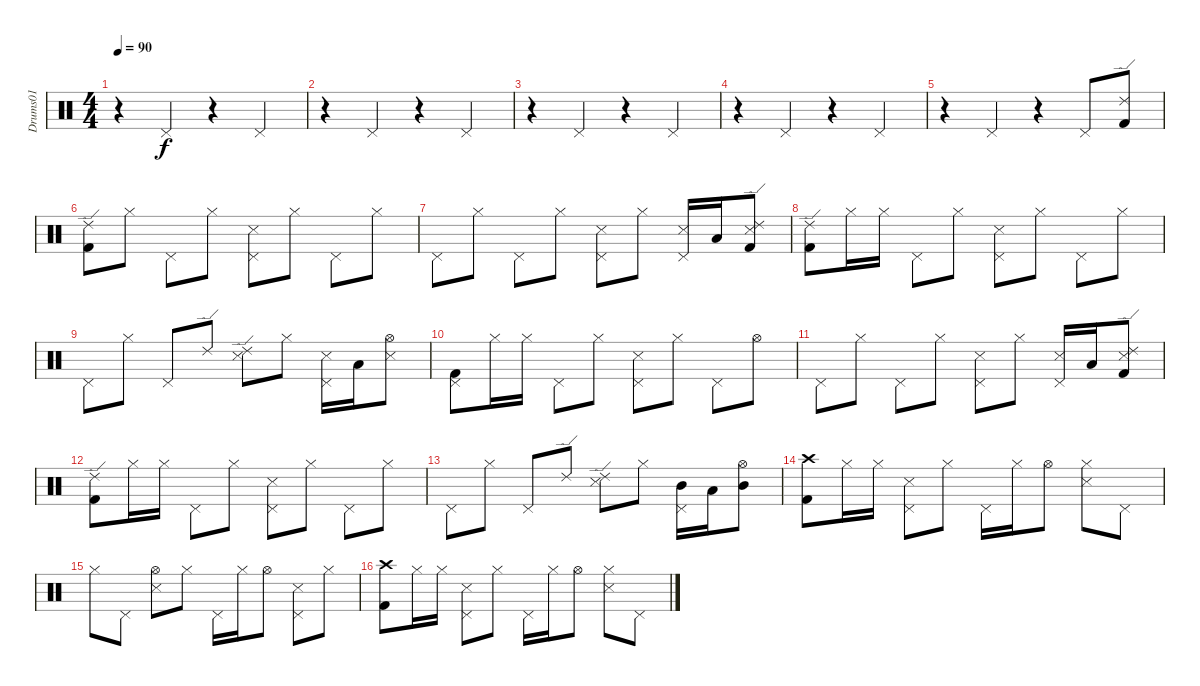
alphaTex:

\track ("Drums01" "Drums01") {instrument percussion}
\staff {score}
\articulation defaults
\ts (4 4)
\tempo 90
\clef neutral
\ks c
r.4{dy f} "Pedal Hi-Hat (hit)".4 r.4 "Pedal Hi-Hat (hit)".4 |
r.4 "Pedal Hi-Hat (hit)".4 r.4 "Pedal Hi-Hat (hit)".4 |
r.4 "Pedal Hi-Hat (hit)".4 r.4 "Pedal Hi-Hat (hit)".4 |
r.4 "Pedal Hi-Hat (hit)".4 r.4 "Pedal Hi-Hat (hit)".4 |
r.4 "Pedal Hi-Hat (hit)".4 r.4 "Pedal Hi-Hat (hit)".8 ("Ride (edge) 2" "Kick (hit) 2").8 |
("Ride (edge) 2" "Kick (hit) 2").8 "Hi-Hat (closed)".8 "Pedal Hi-Hat (hit)".8 "Hi-Hat (closed)".8 ("Pedal Hi-Hat (hit)" "Snare (side stick) 3").8 "Hi-Hat (closed)".8 "Pedal Hi-Hat (hit)".8 "Hi-Hat (closed)".8 |
"Pedal Hi-Hat (hit)".8 "Hi-Hat (closed)".8 "Pedal Hi-Hat (hit)".8 "Hi-Hat (closed)".8 ("Pedal Hi-Hat (hit)" "Snare (side stick) 3").8 "Hi-Hat (closed)".8 ("Pedal Hi-Hat (hit)" "Snare (side stick) 3").16 "Low Tom (hit)".16 ("Ride (edge) 2" "Snare (side stick) 3" "Kick (hit) 2").8 |
("Ride (edge) 2" "Kick (hit) 2").8 "Hi-Hat (closed)".16 "Hi-Hat (closed)".16 "Pedal Hi-Hat (hit)".8 "Hi-Hat (closed)".8 ("Pedal Hi-Hat (hit)" "Snare (side stick) 3").8 "Hi-Hat (closed)".8 "Pedal Hi-Hat (hit)".8 "Hi-Hat (closed)".8 |
"Pedal Hi-Hat (hit)".8 "Hi-Hat (closed)".8 "Pedal Hi-Hat (hit)".8 "Ride (edge) 2".8 ("Ride (edge) 2" "Snare (side stick) 3").8 "Hi-Hat (closed)".8 ("Pedal Hi-Hat (hit)" "Snare (side stick) 3").16 "Low Tom (hit)".16 ("Hi-Hat (open)" "Snare (side stick) 3").8 |
("Pedal Hi-Hat (hit)" "Kick (hit) 2").8 "Hi-Hat (closed)".16 "Hi-Hat (closed)".16 "Pedal Hi-Hat (hit)".8 "Hi-Hat (closed)".8 ("Pedal Hi-Hat (hit)" "Snare (side stick) 3").8 "Hi-Hat (closed)".8 "Pedal Hi-Hat (hit)".8 "Hi-Hat (open)".8 |
"Pedal Hi-Hat (hit)".8 "Hi-Hat (closed)".8 "Pedal Hi-Hat (hit)".8 "Hi-Hat (closed)".8 ("Pedal Hi-Hat (hit)" "Snare (side stick) 3").8 "Hi-Hat (closed)".8 ("Pedal Hi-Hat (hit)" "Snare (side stick) 3").16 "Low Tom (hit)".16 ("Ride (edge) 2" "Snare (side stick) 3" "Kick (hit) 2").8 |
("Ride (edge) 2" "Kick (hit) 2").8 "Hi-Hat (closed)".16 "Hi-Hat (closed)".16 "Pedal Hi-Hat (hit)".8 "Hi-Hat (closed)".8 ("Pedal Hi-Hat (hit)" "Snare (side stick) 3").8 "Hi-Hat (closed)".8 "Pedal Hi-Hat (hit)".8 "Hi-Hat (closed)".8 |
"Pedal Hi-Hat (hit)".8 "Hi-Hat (closed)".8 "Pedal Hi-Hat (hit)".8 "Ride (edge) 2".8 ("Ride (edge) 2" "Snare (side stick) 3").8 "Hi-Hat (closed)".8 ("Pedal Hi-Hat (hit)" "Mid Tom (hit)").16 "Low Tom (hit)".16 ("Hi-Hat (open)" "Mid Tom (hit)").8 |
("Crash high (hit)" "Kick (hit) 2").8 "Hi-Hat (closed)".16 "Hi-Hat (closed)".16 ("Pedal Hi-Hat (hit)" "Snare (side stick) 3").8 "Hi-Hat (closed)".8 "Pedal Hi-Hat (hit)".16 "Hi-Hat (closed)".16 "Hi-Hat (open)".8 ("Hi-Hat (closed)" "Snare (side stick) 3").8 "Pedal Hi-Hat (hit)".8 |
"Hi-Hat (closed)".8 "Pedal Hi-Hat (hit)".8 ("Hi-Hat (open)" "Snare (side stick) 3").8 "Hi-Hat (closed)".8 "Pedal Hi-Hat (hit)".16 "Hi-Hat (closed)".16 "Hi-Hat (open)".8 ("Pedal Hi-Hat (hit)" "Snare (side stick) 3").8 "Hi-Hat (closed)".8 |
("Crash high (hit)" "Kick (hit) 2").8 "Hi-Hat (closed)".16 "Hi-Hat (closed)".16 ("Pedal Hi-Hat (hit)" "Snare (side stick) 3").8 "Hi-Hat (closed)".8 "Pedal Hi-Hat (hit)".16 "Hi-Hat (closed)".16 "Hi-Hat (open)".8 ("Hi-Hat (closed)" "Snare (side stick) 3").8 "Pedal Hi-Hat (hit)".8
